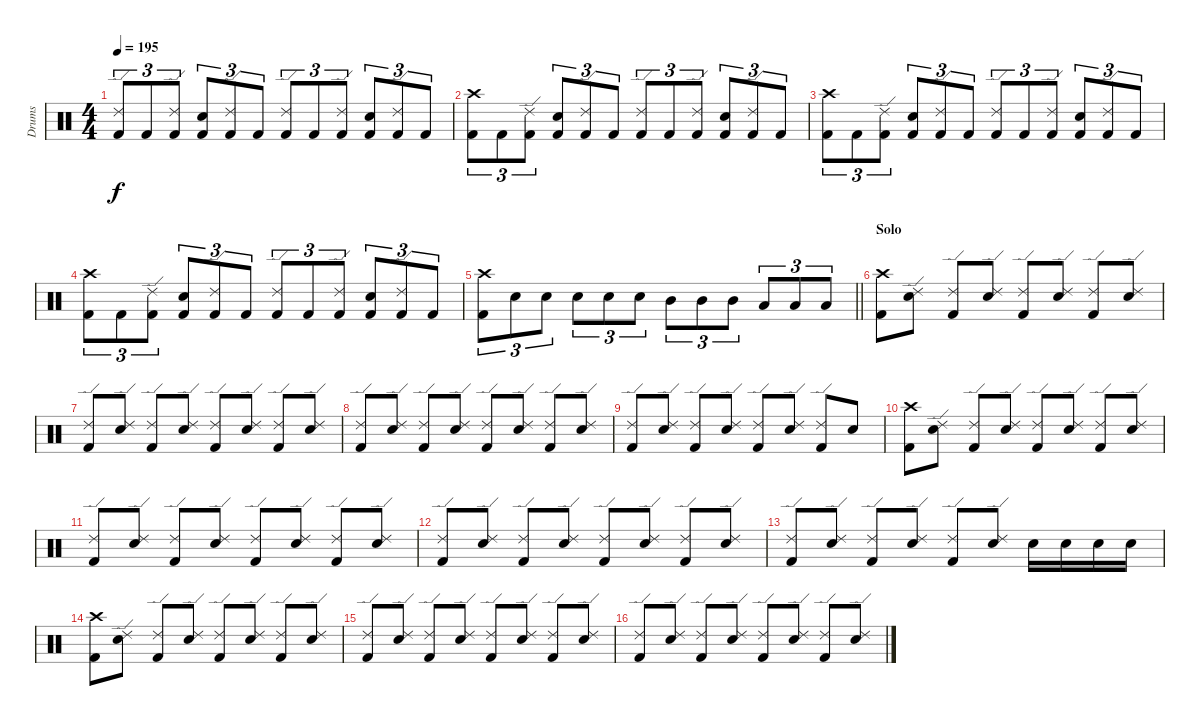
\track ("Drums" "Drums") {instrument percussion}
\staff {score}
\articulation defaults
\ts (4 4)
\tempo 195
\clef neutral
\ks c
("Ride (edge) 2" "Kick (hit) 2").8{tu (3 2) dy f} "Kick (hit) 2".8{tu (3 2)} ("Ride (edge) 2" "Kick (hit) 2").8{tu (3 2)} ("Snare (hit) 2" "Kick (hit) 2").8{tu (3 2)} ("Ride (edge) 2" "Kick (hit) 2").8{tu (3 2)} "Kick (hit) 2".8{tu (3 2)} ("Ride (edge) 2" "Kick (hit) 2").8{tu (3 2)} "Kick (hit) 2".8{tu (3 2)} ("Ride (edge) 2" "Kick (hit) 2").8{tu (3 2)} ("Snare (hit) 2" "Kick (hit) 2").8{tu (3 2)} ("Ride (edge) 2" "Kick (hit) 2").8{tu (3 2)} "Kick (hit) 2".8{tu (3 2)} |
("Crash high (hit)" "Kick (hit) 2").8{tu (3 2)} "Kick (hit) 2".8{tu (3 2)} ("Ride (edge) 2" "Kick (hit) 2").8{tu (3 2)} ("Snare (hit) 2" "Kick (hit) 2").8{tu (3 2)} ("Ride (edge) 2" "Kick (hit) 2").8{tu (3 2)} "Kick (hit) 2".8{tu (3 2)} ("Ride (edge) 2" "Kick (hit) 2").8{tu (3 2)} "Kick (hit) 2".8{tu (3 2)} ("Ride (edge) 2" "Kick (hit) 2").8{tu (3 2)} ("Snare (hit) 2" "Kick (hit) 2").8{tu (3 2)} ("Ride (edge) 2" "Kick (hit) 2").8{tu (3 2)} "Kick (hit) 2".8{tu (3 2)} |
("Crash high (hit)" "Kick (hit) 2").8{tu (3 2)} "Kick (hit) 2".8{tu (3 2)} ("Ride (edge) 2" "Kick (hit) 2").8{tu (3 2)} ("Snare (hit) 2" "Kick (hit) 2").8{tu (3 2)} ("Ride (edge) 2" "Kick (hit) 2").8{tu (3 2)} "Kick (hit) 2".8{tu (3 2)} ("Ride (edge) 2" "Kick (hit) 2").8{tu (3 2)} "Kick (hit) 2".8{tu (3 2)} ("Ride (edge) 2" "Kick (hit) 2").8{tu (3 2)} ("Snare (hit) 2" "Kick (hit) 2").8{tu (3 2)} ("Ride (edge) 2" "Kick (hit) 2").8{tu (3 2)} "Kick (hit) 2".8{tu (3 2)} |
("Crash high (hit)" "Kick (hit) 2").8{tu (3 2)} "Kick (hit) 2".8{tu (3 2)} ("Ride (edge) 2" "Kick (hit) 2").8{tu (3 2)} ("Snare (hit) 2" "Kick (hit) 2").8{tu (3 2)} ("Ride (edge) 2" "Kick (hit) 2").8{tu (3 2)} "Kick (hit) 2".8{tu (3 2)} ("Ride (edge) 2" "Kick (hit) 2").8{tu (3 2)} "Kick (hit) 2".8{tu (3 2)} ("Ride (edge) 2" "Kick (hit) 2").8{tu (3 2)} ("Snare (hit) 2" "Kick (hit) 2").8{tu (3 2)} ("Ride (edge) 2" "Kick (hit) 2").8{tu (3 2)} "Kick (hit) 2".8{tu (3 2)} |
\barLineRight lightlight
("Crash high (hit)" "Kick (hit) 2").8{tu (3 2)} "Snare (hit) 2".8{tu (3 2) volume 10} "Snare (hit) 2".8{tu (3 2) volume 13} "Snare (hit) 2".8{tu (3 2)} "Snare (hit) 2".8{tu (3 2)} "Snare (hit) 2".8{tu (3 2)} "Mid Tom (hit)".8{tu (3 2)} "Mid Tom (hit)".8{tu (3 2)} "Mid Tom (hit)".8{tu (3 2)} "Low Tom (hit)".8{tu (3 2)} "Low Tom (hit)".8{tu (3 2)} "Low Tom (hit)".8{tu (3 2)} |
\section ("" "Solo")
("Crash high (hit)" "Kick (hit) 2").8 ("Ride (edge) 2" "Snare (hit) 2").8 ("Ride (edge) 2" "Kick (hit) 2").8 ("Ride (edge) 2" "Snare (hit) 2").8 ("Ride (edge) 2" "Kick (hit) 2").8 ("Ride (edge) 2" "Snare (hit) 2").8 ("Ride (edge) 2" "Kick (hit) 2").8 ("Ride (edge) 2" "Snare (hit) 2").8 |
("Ride (edge) 2" "Kick (hit) 2").8 ("Ride (edge) 2" "Snare (hit) 2").8 ("Ride (edge) 2" "Kick (hit) 2").8 ("Ride (edge) 2" "Snare (hit) 2").8 ("Ride (edge) 2" "Kick (hit) 2").8 ("Ride (edge) 2" "Snare (hit) 2").8 ("Ride (edge) 2" "Kick (hit) 2").8 ("Ride (edge) 2" "Snare (hit) 2").8 |
("Ride (edge) 2" "Kick (hit) 2").8 ("Ride (edge) 2" "Snare (hit) 2").8 ("Ride (edge) 2" "Kick (hit) 2").8 ("Ride (edge) 2" "Snare (hit) 2").8 ("Ride (edge) 2" "Kick (hit) 2").8 ("Ride (edge) 2" "Snare (hit) 2").8 ("Ride (edge) 2" "Kick (hit) 2").8 ("Ride (edge) 2" "Snare (hit) 2").8 |
("Ride (edge) 2" "Kick (hit) 2").8 ("Ride (edge) 2" "Snare (hit) 2").8 ("Ride (edge) 2" "Kick (hit) 2").8 ("Ride (edge) 2" "Snare (hit) 2").8 ("Ride (edge) 2" "Kick (hit) 2").8 ("Ride (edge) 2" "Snare (hit) 2").8 ("Ride (edge) 2" "Kick (hit) 2").8 "Snare (hit) 2".8 |
("Crash high (hit)" "Kick (hit) 2").8 ("Ride (edge) 2" "Snare (hit) 2").8 ("Ride (edge) 2" "Kick (hit) 2").8 ("Ride (edge) 2" "Snare (hit) 2").8 ("Ride (edge) 2" "Kick (hit) 2").8 ("Ride (edge) 2" "Snare (hit) 2").8 ("Ride (edge) 2" "Kick (hit) 2").8 ("Ride (edge) 2" "Snare (hit) 2").8 |
("Ride (edge) 2" "Kick (hit) 2").8 ("Ride (edge) 2" "Snare (hit) 2").8 ("Ride (edge) 2" "Kick (hit) 2").8 ("Ride (edge) 2" "Snare (hit) 2").8 ("Ride (edge) 2" "Kick (hit) 2").8 ("Ride (edge) 2" "Snare (hit) 2").8 ("Ride (edge) 2" "Kick (hit) 2").8 ("Ride (edge) 2" "Snare (hit) 2").8 |
("Ride (edge) 2" "Kick (hit) 2").8 ("Ride (edge) 2" "Snare (hit) 2").8 ("Ride (edge) 2" "Kick (hit) 2").8 ("Ride (edge) 2" "Snare (hit) 2").8 ("Ride (edge) 2" "Kick (hit) 2").8 ("Ride (edge) 2" "Snare (hit) 2").8 ("Ride (edge) 2" "Kick (hit) 2").8 ("Ride (edge) 2" "Snare (hit) 2").8 |
("Ride (edge) 2" "Kick (hit) 2").8 ("Ride (edge) 2" "Snare (hit) 2").8 ("Ride (edge) 2" "Kick (hit) 2").8 ("Ride (edge) 2" "Snare (hit) 2").8 ("Ride (edge) 2" "Kick (hit) 2").8 ("Ride (edge) 2" "Snare (hit) 2").8 "Snare (hit) 2".16 "Snare (hit) 2".16 "Snare (hit) 2".16 "Snare (hit) 2".16 |
("Crash high (hit)" "Kick (hit) 2").8 ("Ride (edge) 2" "Snare (hit) 2").8 ("Ride (edge) 2" "Kick (hit) 2").8 ("Ride (edge) 2" "Snare (hit) 2").8 ("Ride (edge) 2" "Kick (hit) 2").8 ("Ride (edge) 2" "Snare (hit) 2").8 ("Ride (edge) 2" "Kick (hit) 2").8 ("Ride (edge) 2" "Snare (hit) 2").8 |
("Ride (edge) 2" "Kick (hit) 2").8 ("Ride (edge) 2" "Snare (hit) 2").8 ("Ride (edge) 2" "Kick (hit) 2").8 ("Ride (edge) 2" "Snare (hit) 2").8 ("Ride (edge) 2" "Kick (hit) 2").8 ("Ride (edge) 2" "Snare (hit) 2").8 ("Ride (edge) 2" "Kick (hit) 2").8 ("Ride (edge) 2" "Snare (hit) 2").8 |
("Ride (edge) 2" "Kick (hit) 2").8 ("Ride (edge) 2" "Snare (hit) 2").8 ("Ride (edge) 2" "Kick (hit) 2").8 ("Ride (edge) 2" "Snare (hit) 2").8 ("Ride (edge) 2" "Kick (hit) 2").8 ("Ride (edge) 2" "Snare (hit) 2").8 ("Ride (edge) 2" "Kick (hit) 2").8 ("Ride (edge) 2" "Snare (hit) 2").8
